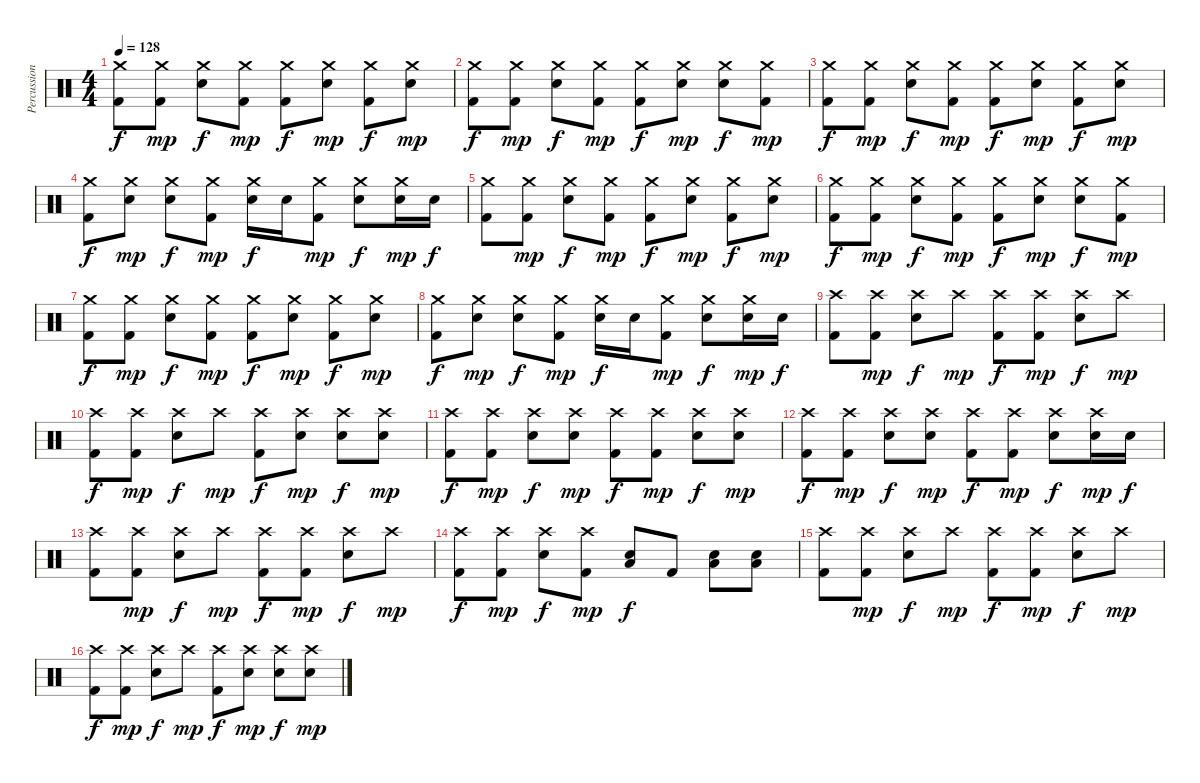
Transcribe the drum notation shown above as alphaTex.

\track ("Percussion" "Percussion") {instrument percussion}
\staff {score}
\articulation defaults
\ts (4 4)
\tempo 128
\clef neutral
\ks c
("Crash medium (hit)" "Kick (hit) 2").8{dy f} ("Crash medium (hit)" "Kick (hit) 2").8{dy mp} ("Crash medium (hit)" "Snare (hit) 2").8{dy f} ("Crash medium (hit)" "Kick (hit) 2").8{dy mp} ("Crash medium (hit)" "Kick (hit) 2").8{dy f} ("Crash medium (hit)" "Snare (hit) 2").8{dy mp} ("Crash medium (hit)" "Kick (hit) 2").8{dy f} ("Crash medium (hit)" "Snare (hit) 2").8{dy mp} |
("Crash medium (hit)" "Kick (hit) 2").8{dy f} ("Crash medium (hit)" "Kick (hit) 2").8{dy mp} ("Crash medium (hit)" "Snare (hit) 2").8{dy f} ("Crash medium (hit)" "Kick (hit) 2").8{dy mp} ("Crash medium (hit)" "Kick (hit) 2").8{dy f} ("Crash medium (hit)" "Snare (hit) 2").8{dy mp} ("Crash medium (hit)" "Snare (hit) 2").8{dy f} ("Crash medium (hit)" "Kick (hit) 2").8{dy mp} |
("Crash medium (hit)" "Kick (hit) 2").8{dy f} ("Crash medium (hit)" "Kick (hit) 2").8{dy mp} ("Crash medium (hit)" "Snare (hit) 2").8{dy f} ("Crash medium (hit)" "Kick (hit) 2").8{dy mp} ("Crash medium (hit)" "Kick (hit) 2").8{dy f} ("Crash medium (hit)" "Snare (hit) 2").8{dy mp} ("Crash medium (hit)" "Kick (hit) 2").8{dy f} ("Crash medium (hit)" "Snare (hit) 2").8{dy mp} |
("Crash medium (hit)" "Kick (hit) 2").8{dy f} ("Crash medium (hit)" "Snare (hit) 2").8{dy mp} ("Crash medium (hit)" "Snare (hit) 2").8{dy f} ("Crash medium (hit)" "Kick (hit) 2").8{dy mp} ("Crash medium (hit)" "Snare (hit) 2").16{dy f} "Snare (hit) 2".16 ("Crash medium (hit)" "Kick (hit) 2").8{dy mp} ("Crash medium (hit)" "Snare (hit) 2").8{dy f} ("Crash medium (hit)" "Snare (hit) 2").16{dy mp} "Snare (hit) 2".16{dy f} |
("Crash medium (hit)" "Kick (hit) 2").8 ("Crash medium (hit)" "Kick (hit) 2").8{dy mp} ("Crash medium (hit)" "Snare (hit) 2").8{dy f} ("Crash medium (hit)" "Kick (hit) 2").8{dy mp} ("Crash medium (hit)" "Kick (hit) 2").8{dy f} ("Crash medium (hit)" "Snare (hit) 2").8{dy mp} ("Crash medium (hit)" "Kick (hit) 2").8{dy f} ("Crash medium (hit)" "Snare (hit) 2").8{dy mp} |
("Crash medium (hit)" "Kick (hit) 2").8{dy f} ("Crash medium (hit)" "Kick (hit) 2").8{dy mp} ("Crash medium (hit)" "Snare (hit) 2").8{dy f} ("Crash medium (hit)" "Kick (hit) 2").8{dy mp} ("Crash medium (hit)" "Kick (hit) 2").8{dy f} ("Crash medium (hit)" "Snare (hit) 2").8{dy mp} ("Crash medium (hit)" "Snare (hit) 2").8{dy f} ("Crash medium (hit)" "Kick (hit) 2").8{dy mp} |
("Crash medium (hit)" "Kick (hit) 2").8{dy f} ("Crash medium (hit)" "Kick (hit) 2").8{dy mp} ("Crash medium (hit)" "Snare (hit) 2").8{dy f} ("Crash medium (hit)" "Kick (hit) 2").8{dy mp} ("Crash medium (hit)" "Kick (hit) 2").8{dy f} ("Crash medium (hit)" "Snare (hit) 2").8{dy mp} ("Crash medium (hit)" "Kick (hit) 2").8{dy f} ("Crash medium (hit)" "Snare (hit) 2").8{dy mp} |
("Crash medium (hit)" "Kick (hit) 2").8{dy f} ("Crash medium (hit)" "Snare (hit) 2").8{dy mp} ("Crash medium (hit)" "Snare (hit) 2").8{dy f} ("Crash medium (hit)" "Kick (hit) 2").8{dy mp} ("Crash medium (hit)" "Snare (hit) 2").16{dy f} "Snare (hit) 2".16 ("Crash medium (hit)" "Kick (hit) 2").8{dy mp} ("Crash medium (hit)" "Snare (hit) 2").8{dy f} ("Crash medium (hit)" "Snare (hit) 2").16{dy mp} "Snare (hit) 2".16{dy f} |
("Crash high (hit)" "Kick (hit) 2").8 ("Crash high (hit)" "Kick (hit) 2").8{dy mp} ("Crash high (hit)" "Snare (hit) 2").8{dy f} "Crash high (hit)".8{dy mp} ("Crash high (hit)" "Kick (hit) 2").8{dy f} ("Crash high (hit)" "Kick (hit) 2").8{dy mp} ("Crash high (hit)" "Snare (hit) 2").8{dy f} "Crash high (hit)".8{dy mp} |
("Crash high (hit)" "Kick (hit) 2").8{dy f} ("Crash high (hit)" "Kick (hit) 2").8{dy mp} ("Crash high (hit)" "Snare (hit) 2").8{dy f} "Crash high (hit)".8{dy mp} ("Crash high (hit)" "Kick (hit) 2").8{dy f} ("Crash high (hit)" "Snare (hit) 2").8{dy mp} ("Crash high (hit)" "Snare (hit) 2").8{dy f} ("Crash high (hit)" "Snare (hit) 2").8{dy mp} |
("Crash high (hit)" "Kick (hit) 2").8{dy f} ("Crash high (hit)" "Kick (hit) 2").8{dy mp} ("Crash high (hit)" "Snare (hit) 2").8{dy f} ("Crash high (hit)" "Snare (hit) 2").8{dy mp} ("Crash high (hit)" "Kick (hit) 2").8{dy f} ("Crash high (hit)" "Kick (hit) 2").8{dy mp} ("Crash high (hit)" "Snare (hit) 2").8{dy f} ("Crash high (hit)" "Snare (hit) 2").8{dy mp} |
("Crash high (hit)" "Kick (hit) 2").8{dy f} ("Crash high (hit)" "Kick (hit) 2").8{dy mp} ("Crash high (hit)" "Snare (hit) 2").8{dy f} ("Crash high (hit)" "Snare (hit) 2").8{dy mp} ("Crash high (hit)" "Kick (hit) 2").8{dy f} ("Crash high (hit)" "Kick (hit) 2").8{dy mp} ("Crash high (hit)" "Snare (hit) 2").8{dy f} ("Crash high (hit)" "Snare (hit) 2").16{dy mp} "Snare (hit) 2".16{dy f} |
("Crash high (hit)" "Kick (hit) 2").8 ("Crash high (hit)" "Kick (hit) 2").8{dy mp} ("Crash high (hit)" "Snare (hit) 2").8{dy f} "Crash high (hit)".8{dy mp} ("Crash high (hit)" "Kick (hit) 2").8{dy f} ("Crash high (hit)" "Kick (hit) 2").8{dy mp} ("Crash high (hit)" "Snare (hit) 2").8{dy f} "Crash high (hit)".8{dy mp} |
("Crash high (hit)" "Kick (hit) 2").8{dy f} ("Crash high (hit)" "Kick (hit) 2").8{dy mp} ("Crash high (hit)" "Snare (hit) 2").8{dy f} ("Crash high (hit)" "Kick (hit) 2").8{dy mp} ("Low Tom (hit)" "Snare (hit) 2").8{dy f} "Kick (hit) 2".8 ("Low Tom (hit)" "Snare (hit) 2").8 ("Low Tom (hit)" "Snare (hit) 2").8 |
("Crash high (hit)" "Kick (hit) 2").8 ("Crash high (hit)" "Kick (hit) 2").8{dy mp} ("Crash high (hit)" "Snare (hit) 2").8{dy f} "Crash high (hit)".8{dy mp} ("Crash high (hit)" "Kick (hit) 2").8{dy f} ("Crash high (hit)" "Kick (hit) 2").8{dy mp} ("Crash high (hit)" "Snare (hit) 2").8{dy f} "Crash high (hit)".8{dy mp} |
("Crash high (hit)" "Kick (hit) 2").8{dy f} ("Crash high (hit)" "Kick (hit) 2").8{dy mp} ("Crash high (hit)" "Snare (hit) 2").8{dy f} "Crash high (hit)".8{dy mp} ("Crash high (hit)" "Kick (hit) 2").8{dy f} ("Crash high (hit)" "Snare (hit) 2").8{dy mp} ("Crash high (hit)" "Snare (hit) 2").8{dy f} ("Crash high (hit)" "Snare (hit) 2").8{dy mp}
